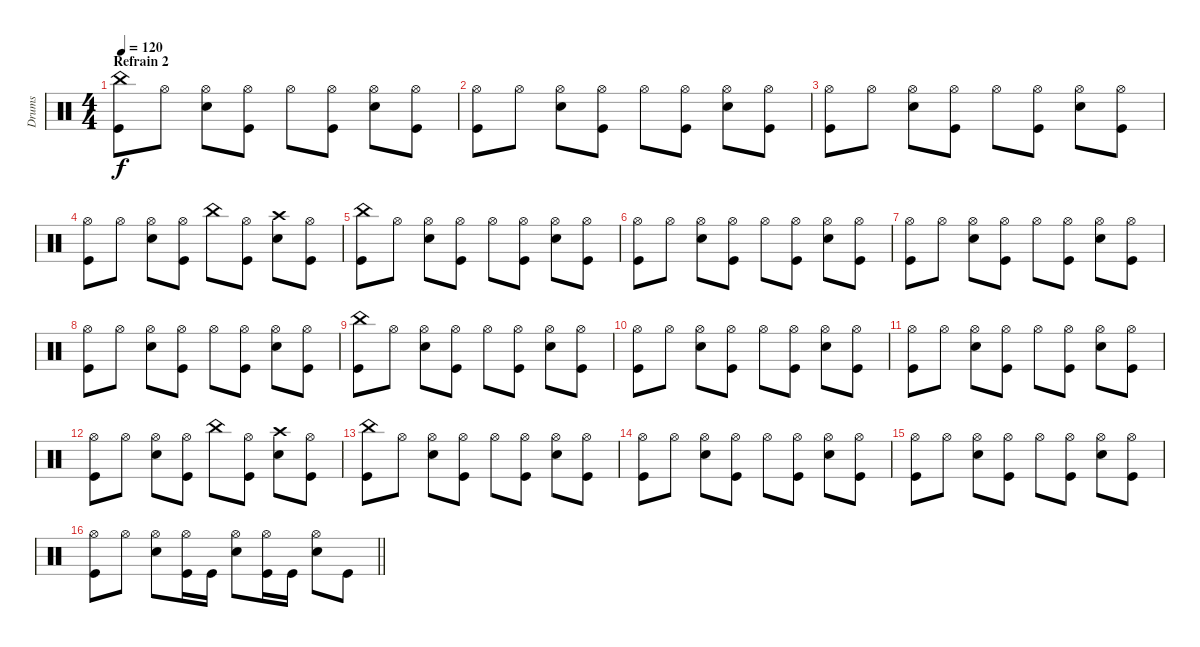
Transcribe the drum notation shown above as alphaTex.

\track ("Drums" "Drums") {instrument percussion}
\staff {score}
\articulation defaults
\ts (4 4)
\section ("" "Refrain 2")
\tempo 120
\clef neutral
\ks c
("China (hit)" "Kick (hit)").8{dy f} "Hi-Hat (open)".8 ("Hi-Hat (open)" "Electric Snare (hit)").8 ("Hi-Hat (open)" "Kick (hit)").8 "Hi-Hat (open)".8 ("Hi-Hat (open)" "Kick (hit)").8 ("Hi-Hat (open)" "Electric Snare (hit)").8 ("Hi-Hat (open)" "Kick (hit)").8 |
("Hi-Hat (open)" "Kick (hit)").8 "Hi-Hat (open)".8 ("Hi-Hat (open)" "Electric Snare (hit)").8 ("Hi-Hat (open)" "Kick (hit)").8 "Hi-Hat (open)".8 ("Hi-Hat (open)" "Kick (hit)").8 ("Hi-Hat (open)" "Electric Snare (hit)").8 ("Hi-Hat (open)" "Kick (hit)").8 |
("Hi-Hat (open)" "Kick (hit)").8 "Hi-Hat (open)".8 ("Hi-Hat (open)" "Electric Snare (hit)").8 ("Hi-Hat (open)" "Kick (hit)").8 "Hi-Hat (open)".8 ("Hi-Hat (open)" "Kick (hit)").8 ("Hi-Hat (open)" "Electric Snare (hit)").8 ("Hi-Hat (open)" "Kick (hit)").8 |
("Hi-Hat (open)" "Kick (hit)").8 "Hi-Hat (open)".8 ("Hi-Hat (open)" "Electric Snare (hit)").8 ("Hi-Hat (open)" "Kick (hit)").8 "China (hit)".8 ("Hi-Hat (open)" "Kick (hit)").8 ("Crash high (hit)" "Electric Snare (hit)").8 ("Hi-Hat (open)" "Kick (hit)").8 |
("China (hit)" "Kick (hit)").8 "Hi-Hat (open)".8 ("Hi-Hat (open)" "Electric Snare (hit)").8 ("Hi-Hat (open)" "Kick (hit)").8 "Hi-Hat (open)".8 ("Hi-Hat (open)" "Kick (hit)").8 ("Hi-Hat (open)" "Electric Snare (hit)").8 ("Hi-Hat (open)" "Kick (hit)").8 |
("Hi-Hat (open)" "Kick (hit)").8 "Hi-Hat (open)".8 ("Hi-Hat (open)" "Electric Snare (hit)").8 ("Hi-Hat (open)" "Kick (hit)").8 "Hi-Hat (open)".8 ("Hi-Hat (open)" "Kick (hit)").8 ("Hi-Hat (open)" "Electric Snare (hit)").8 ("Hi-Hat (open)" "Kick (hit)").8 |
("Hi-Hat (open)" "Kick (hit)").8 "Hi-Hat (open)".8 ("Hi-Hat (open)" "Electric Snare (hit)").8 ("Hi-Hat (open)" "Kick (hit)").8 "Hi-Hat (open)".8 ("Hi-Hat (open)" "Kick (hit)").8 ("Hi-Hat (open)" "Electric Snare (hit)").8 ("Hi-Hat (open)" "Kick (hit)").8 |
("Hi-Hat (open)" "Kick (hit)").8 "Hi-Hat (open)".8 ("Hi-Hat (open)" "Electric Snare (hit)").8 ("Hi-Hat (open)" "Kick (hit)").8 "Hi-Hat (open)".8 ("Hi-Hat (open)" "Kick (hit)").8 ("Hi-Hat (open)" "Electric Snare (hit)").8 ("Hi-Hat (open)" "Kick (hit)").8 |
("China (hit)" "Kick (hit)").8 "Hi-Hat (open)".8 ("Hi-Hat (open)" "Electric Snare (hit)").8 ("Hi-Hat (open)" "Kick (hit)").8 "Hi-Hat (open)".8 ("Hi-Hat (open)" "Kick (hit)").8 ("Hi-Hat (open)" "Electric Snare (hit)").8 ("Hi-Hat (open)" "Kick (hit)").8 |
("Hi-Hat (open)" "Kick (hit)").8 "Hi-Hat (open)".8 ("Hi-Hat (open)" "Electric Snare (hit)").8 ("Hi-Hat (open)" "Kick (hit)").8 "Hi-Hat (open)".8 ("Hi-Hat (open)" "Kick (hit)").8 ("Hi-Hat (open)" "Electric Snare (hit)").8 ("Hi-Hat (open)" "Kick (hit)").8 |
("Hi-Hat (open)" "Kick (hit)").8 "Hi-Hat (open)".8 ("Hi-Hat (open)" "Electric Snare (hit)").8 ("Hi-Hat (open)" "Kick (hit)").8 "Hi-Hat (open)".8 ("Hi-Hat (open)" "Kick (hit)").8 ("Hi-Hat (open)" "Electric Snare (hit)").8 ("Hi-Hat (open)" "Kick (hit)").8 |
("Hi-Hat (open)" "Kick (hit)").8 "Hi-Hat (open)".8 ("Hi-Hat (open)" "Electric Snare (hit)").8 ("Hi-Hat (open)" "Kick (hit)").8 "China (hit)".8 ("Hi-Hat (open)" "Kick (hit)").8 ("Crash high (hit)" "Electric Snare (hit)").8 ("Hi-Hat (open)" "Kick (hit)").8 |
("China (hit)" "Kick (hit)").8 "Hi-Hat (open)".8 ("Hi-Hat (open)" "Electric Snare (hit)").8 ("Hi-Hat (open)" "Kick (hit)").8 "Hi-Hat (open)".8 ("Hi-Hat (open)" "Kick (hit)").8 ("Hi-Hat (open)" "Electric Snare (hit)").8 ("Hi-Hat (open)" "Kick (hit)").8 |
("Hi-Hat (open)" "Kick (hit)").8 "Hi-Hat (open)".8 ("Hi-Hat (open)" "Electric Snare (hit)").8 ("Hi-Hat (open)" "Kick (hit)").8 "Hi-Hat (open)".8 ("Hi-Hat (open)" "Kick (hit)").8 ("Hi-Hat (open)" "Electric Snare (hit)").8 ("Hi-Hat (open)" "Kick (hit)").8 |
("Hi-Hat (open)" "Kick (hit)").8 "Hi-Hat (open)".8 ("Hi-Hat (open)" "Electric Snare (hit)").8 ("Hi-Hat (open)" "Kick (hit)").8 "Hi-Hat (open)".8 ("Hi-Hat (open)" "Kick (hit)").8 ("Hi-Hat (open)" "Electric Snare (hit)").8 ("Hi-Hat (open)" "Kick (hit)").8 |
\barLineRight lightlight
("Hi-Hat (open)" "Kick (hit)").8 "Hi-Hat (open)".8 ("Hi-Hat (open)" "Electric Snare (hit)").8 ("Hi-Hat (open)" "Kick (hit)").16 "Kick (hit)".16 ("Hi-Hat (open)" "Electric Snare (hit)").8 ("Hi-Hat (open)" "Kick (hit)").16 "Kick (hit)".16 ("Hi-Hat (open)" "Electric Snare (hit)").8 "Kick (hit)".8
